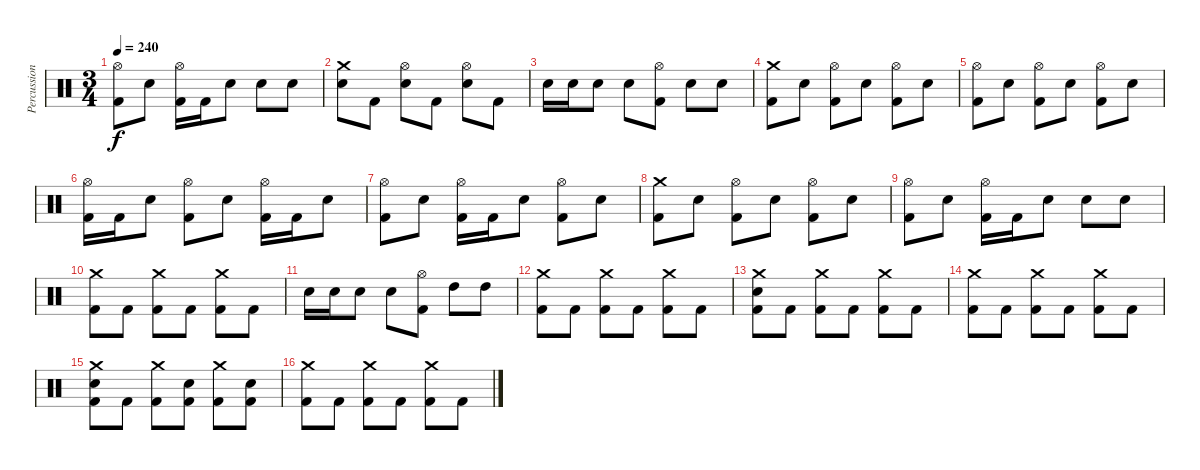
\track ("Percussion" "Percussion") {instrument percussion}
\staff {score}
\articulation defaults
\ts (3 4)
\tempo 240
\clef neutral
\ks c
("Hi-Hat (open)" "Kick (hit) 2").8{dy f} "Electric Snare (hit)".8 ("Hi-Hat (open)" "Kick (hit) 2").16 "Kick (hit) 2".16 "Electric Snare (hit)".8 "Electric Snare (hit)".8 "Electric Snare (hit)".8 |
("Crash medium (hit)" "Electric Snare (hit)").8 "Kick (hit) 2".8 ("Hi-Hat (open)" "Electric Snare (hit)").8 "Kick (hit) 2".8 ("Hi-Hat (open)" "Electric Snare (hit)").8 "Kick (hit) 2".8 |
"Electric Snare (hit)".16 "Electric Snare (hit)".16 "Electric Snare (hit)".8 "Electric Snare (hit)".8 ("Hi-Hat (open)" "Kick (hit) 2").8 "Electric Snare (hit)".8 "Electric Snare (hit)".8 |
("Crash medium (hit)" "Kick (hit) 2").8 "Electric Snare (hit)".8 ("Hi-Hat (open)" "Kick (hit) 2").8 "Electric Snare (hit)".8 ("Hi-Hat (open)" "Kick (hit) 2").8 "Electric Snare (hit)".8 |
("Hi-Hat (open)" "Kick (hit) 2").8 "Electric Snare (hit)".8 ("Hi-Hat (open)" "Kick (hit) 2").8 "Electric Snare (hit)".8 ("Hi-Hat (open)" "Kick (hit) 2").8 "Electric Snare (hit)".8 |
("Hi-Hat (open)" "Kick (hit) 2").16 "Kick (hit) 2".16 "Electric Snare (hit)".8 ("Hi-Hat (open)" "Kick (hit) 2").8 "Electric Snare (hit)".8 ("Hi-Hat (open)" "Kick (hit) 2").16 "Kick (hit) 2".16 "Electric Snare (hit)".8 |
("Hi-Hat (open)" "Kick (hit) 2").8 "Electric Snare (hit)".8 ("Hi-Hat (open)" "Kick (hit) 2").16 "Kick (hit) 2".16 "Electric Snare (hit)".8 ("Hi-Hat (open)" "Kick (hit) 2").8 "Electric Snare (hit)".8 |
("Crash medium (hit)" "Kick (hit) 2").8 "Electric Snare (hit)".8 ("Hi-Hat (open)" "Kick (hit) 2").8 "Electric Snare (hit)".8 ("Hi-Hat (open)" "Kick (hit) 2").8 "Electric Snare (hit)".8 |
("Hi-Hat (open)" "Kick (hit) 2").8 "Electric Snare (hit)".8 ("Hi-Hat (open)" "Kick (hit) 2").16 "Kick (hit) 2".16 "Electric Snare (hit)".8 "Electric Snare (hit)".8 "Electric Snare (hit)".8 |
("Crash medium (hit)" "Kick (hit) 2").8 "Kick (hit) 2".8 ("Crash medium (hit)" "Kick (hit) 2").8 "Kick (hit) 2".8 ("Crash medium (hit)" "Kick (hit) 2").8 "Kick (hit) 2".8 |
"Electric Snare (hit)".16 "Electric Snare (hit)".16 "Electric Snare (hit)".8 "Electric Snare (hit)".8 ("Hi-Hat (open)" "Kick (hit) 2").8 "High Tom (hit)".8 "High Tom (hit)".8 |
("Crash medium (hit)" "Kick (hit) 2").8 "Kick (hit) 2".8 ("Crash medium (hit)" "Kick (hit) 2").8 "Kick (hit) 2".8 ("Crash medium (hit)" "Kick (hit) 2").8 "Kick (hit) 2".8 |
("Crash medium (hit)" "Electric Snare (hit)" "Kick (hit) 2").8 "Kick (hit) 2".8 ("Crash medium (hit)" "Kick (hit) 2").8 "Kick (hit) 2".8 ("Crash medium (hit)" "Kick (hit) 2").8 "Kick (hit) 2".8 |
("Crash medium (hit)" "Kick (hit) 2").8 "Kick (hit) 2".8 ("Crash medium (hit)" "Kick (hit) 2").8 "Kick (hit) 2".8 ("Crash medium (hit)" "Kick (hit) 2").8 "Kick (hit) 2".8 |
("Crash medium (hit)" "Electric Snare (hit)" "Kick (hit) 2").8 "Kick (hit) 2".8 ("Crash medium (hit)" "Kick (hit) 2").8 ("Electric Snare (hit)" "Kick (hit) 2").8 ("Crash medium (hit)" "Kick (hit) 2").8 ("Electric Snare (hit)" "Kick (hit) 2").8 |
("Crash medium (hit)" "Kick (hit) 2").8 "Kick (hit) 2".8 ("Crash medium (hit)" "Kick (hit) 2").8 "Kick (hit) 2".8 ("Crash medium (hit)" "Kick (hit) 2").8 "Kick (hit) 2".8
